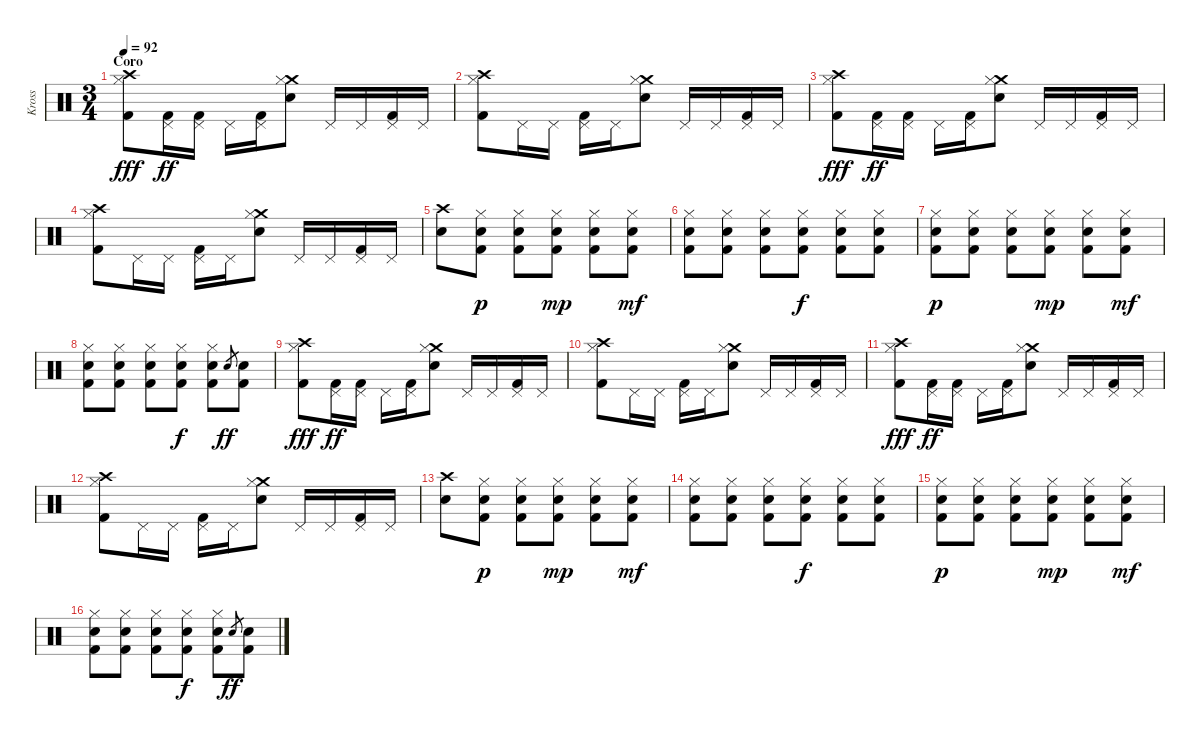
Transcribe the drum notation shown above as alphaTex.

\track ("Kross" "Kross") {instrument percussion}
\staff {score}
\articulation defaults
\ts (3 4)
\section ("" "Coro")
\tempo 92
\clef neutral
\ks c
("Crash high (hit)" "Hi-Hat (closed)" "Kick (hit) 2").8{dy fff} ("Pedal Hi-Hat (hit)" "Kick (hit) 2").16{dy ff} ("Pedal Hi-Hat (hit)" "Kick (hit) 2").16 "Pedal Hi-Hat (hit)".16 ("Pedal Hi-Hat (hit)" "Kick (hit) 2").16 ("Crash medium (hit)" "Hi-Hat (closed)" "Snare (hit) 2").8 "Pedal Hi-Hat (hit)".16 "Pedal Hi-Hat (hit)".16 ("Pedal Hi-Hat (hit)" "Kick (hit) 2").16 "Pedal Hi-Hat (hit)".16 |
("Crash high (hit)" "Hi-Hat (closed)" "Kick (hit) 2").8 "Pedal Hi-Hat (hit)".16 "Pedal Hi-Hat (hit)".16 ("Pedal Hi-Hat (hit)" "Kick (hit) 2").16 "Pedal Hi-Hat (hit)".16 ("Crash medium (hit)" "Hi-Hat (closed)" "Snare (hit) 2").8 "Pedal Hi-Hat (hit)".16 "Pedal Hi-Hat (hit)".16 ("Pedal Hi-Hat (hit)" "Kick (hit) 2").16 "Pedal Hi-Hat (hit)".16 |
("Crash high (hit)" "Hi-Hat (closed)" "Kick (hit) 2").8{dy fff} ("Pedal Hi-Hat (hit)" "Kick (hit) 2").16{dy ff} ("Pedal Hi-Hat (hit)" "Kick (hit) 2").16 "Pedal Hi-Hat (hit)".16 ("Pedal Hi-Hat (hit)" "Kick (hit) 2").16 ("Crash medium (hit)" "Hi-Hat (closed)" "Snare (hit) 2").8 "Pedal Hi-Hat (hit)".16 "Pedal Hi-Hat (hit)".16 ("Pedal Hi-Hat (hit)" "Kick (hit) 2").16 "Pedal Hi-Hat (hit)".16 |
("Crash high (hit)" "Hi-Hat (closed)" "Kick (hit) 2").8 "Pedal Hi-Hat (hit)".16 "Pedal Hi-Hat (hit)".16 ("Pedal Hi-Hat (hit)" "Kick (hit) 2").16 "Pedal Hi-Hat (hit)".16 ("Crash medium (hit)" "Hi-Hat (closed)" "Snare (hit) 2").8 "Pedal Hi-Hat (hit)".16 "Pedal Hi-Hat (hit)".16 ("Pedal Hi-Hat (hit)" "Kick (hit) 2").16 "Pedal Hi-Hat (hit)".16 |
("Crash high (hit)" "Snare (hit) 2").8 ("Hi-Hat (closed)" "Electric Snare (hit)" "Kick (hit) 2").8{dy p} ("Hi-Hat (closed)" "Electric Snare (hit)" "Kick (hit) 2").8 ("Hi-Hat (closed)" "Electric Snare (hit)" "Kick (hit) 2").8{dy mp} ("Hi-Hat (closed)" "Electric Snare (hit)" "Kick (hit) 2").8 ("Hi-Hat (closed)" "Electric Snare (hit)" "Kick (hit) 2").8{dy mf} |
("Hi-Hat (closed)" "Electric Snare (hit)" "Kick (hit) 2").8 ("Hi-Hat (closed)" "Electric Snare (hit)" "Kick (hit) 2").8 ("Hi-Hat (closed)" "Electric Snare (hit)" "Kick (hit) 2").8 ("Hi-Hat (closed)" "Electric Snare (hit)" "Kick (hit) 2").8{dy f} ("Hi-Hat (closed)" "Electric Snare (hit)" "Kick (hit) 2").8 ("Hi-Hat (closed)" "Electric Snare (hit)" "Kick (hit) 2").8 |
("Hi-Hat (closed)" "Electric Snare (hit)" "Kick (hit) 2").8{dy p} ("Hi-Hat (closed)" "Electric Snare (hit)" "Kick (hit) 2").8 ("Hi-Hat (closed)" "Electric Snare (hit)" "Kick (hit) 2").8 ("Hi-Hat (closed)" "Electric Snare (hit)" "Kick (hit) 2").8{dy mp} ("Hi-Hat (closed)" "Electric Snare (hit)" "Kick (hit) 2").8 ("Hi-Hat (closed)" "Electric Snare (hit)" "Kick (hit) 2").8{dy mf} |
("Hi-Hat (closed)" "Electric Snare (hit)" "Kick (hit) 2").8 ("Hi-Hat (closed)" "Electric Snare (hit)" "Kick (hit) 2").8 ("Hi-Hat (closed)" "Electric Snare (hit)" "Kick (hit) 2").8 ("Hi-Hat (closed)" "Electric Snare (hit)" "Kick (hit) 2").8{dy f} ("Hi-Hat (closed)" "Electric Snare (hit)" "Kick (hit) 2").8 "Electric Snare (hit)".8{gr dy ff} ("Electric Snare (hit)" "Kick (hit) 2").8 |
("Crash high (hit)" "Hi-Hat (closed)" "Kick (hit) 2").8{dy fff} ("Pedal Hi-Hat (hit)" "Kick (hit) 2").16{dy ff} ("Pedal Hi-Hat (hit)" "Kick (hit) 2").16 "Pedal Hi-Hat (hit)".16 ("Pedal Hi-Hat (hit)" "Kick (hit) 2").16 ("Crash medium (hit)" "Hi-Hat (closed)" "Snare (hit) 2").8 "Pedal Hi-Hat (hit)".16 "Pedal Hi-Hat (hit)".16 ("Pedal Hi-Hat (hit)" "Kick (hit) 2").16 "Pedal Hi-Hat (hit)".16 |
("Crash high (hit)" "Hi-Hat (closed)" "Kick (hit) 2").8 "Pedal Hi-Hat (hit)".16 "Pedal Hi-Hat (hit)".16 ("Pedal Hi-Hat (hit)" "Kick (hit) 2").16 "Pedal Hi-Hat (hit)".16 ("Crash medium (hit)" "Hi-Hat (closed)" "Snare (hit) 2").8 "Pedal Hi-Hat (hit)".16 "Pedal Hi-Hat (hit)".16 ("Pedal Hi-Hat (hit)" "Kick (hit) 2").16 "Pedal Hi-Hat (hit)".16 |
("Crash high (hit)" "Hi-Hat (closed)" "Kick (hit) 2").8{dy fff} ("Pedal Hi-Hat (hit)" "Kick (hit) 2").16{dy ff} ("Pedal Hi-Hat (hit)" "Kick (hit) 2").16 "Pedal Hi-Hat (hit)".16 ("Pedal Hi-Hat (hit)" "Kick (hit) 2").16 ("Crash medium (hit)" "Hi-Hat (closed)" "Snare (hit) 2").8 "Pedal Hi-Hat (hit)".16 "Pedal Hi-Hat (hit)".16 ("Pedal Hi-Hat (hit)" "Kick (hit) 2").16 "Pedal Hi-Hat (hit)".16 |
("Crash high (hit)" "Hi-Hat (closed)" "Kick (hit) 2").8 "Pedal Hi-Hat (hit)".16 "Pedal Hi-Hat (hit)".16 ("Pedal Hi-Hat (hit)" "Kick (hit) 2").16 "Pedal Hi-Hat (hit)".16 ("Crash medium (hit)" "Hi-Hat (closed)" "Snare (hit) 2").8 "Pedal Hi-Hat (hit)".16 "Pedal Hi-Hat (hit)".16 ("Pedal Hi-Hat (hit)" "Kick (hit) 2").16 "Pedal Hi-Hat (hit)".16 |
("Crash high (hit)" "Snare (hit) 2").8 ("Hi-Hat (closed)" "Electric Snare (hit)" "Kick (hit) 2").8{dy p} ("Hi-Hat (closed)" "Electric Snare (hit)" "Kick (hit) 2").8 ("Hi-Hat (closed)" "Electric Snare (hit)" "Kick (hit) 2").8{dy mp} ("Hi-Hat (closed)" "Electric Snare (hit)" "Kick (hit) 2").8 ("Hi-Hat (closed)" "Electric Snare (hit)" "Kick (hit) 2").8{dy mf} |
("Hi-Hat (closed)" "Electric Snare (hit)" "Kick (hit) 2").8 ("Hi-Hat (closed)" "Electric Snare (hit)" "Kick (hit) 2").8 ("Hi-Hat (closed)" "Electric Snare (hit)" "Kick (hit) 2").8 ("Hi-Hat (closed)" "Electric Snare (hit)" "Kick (hit) 2").8{dy f} ("Hi-Hat (closed)" "Electric Snare (hit)" "Kick (hit) 2").8 ("Hi-Hat (closed)" "Electric Snare (hit)" "Kick (hit) 2").8 |
("Hi-Hat (closed)" "Electric Snare (hit)" "Kick (hit) 2").8{dy p} ("Hi-Hat (closed)" "Electric Snare (hit)" "Kick (hit) 2").8 ("Hi-Hat (closed)" "Electric Snare (hit)" "Kick (hit) 2").8 ("Hi-Hat (closed)" "Electric Snare (hit)" "Kick (hit) 2").8{dy mp} ("Hi-Hat (closed)" "Electric Snare (hit)" "Kick (hit) 2").8 ("Hi-Hat (closed)" "Electric Snare (hit)" "Kick (hit) 2").8{dy mf} |
("Hi-Hat (closed)" "Electric Snare (hit)" "Kick (hit) 2").8 ("Hi-Hat (closed)" "Electric Snare (hit)" "Kick (hit) 2").8 ("Hi-Hat (closed)" "Electric Snare (hit)" "Kick (hit) 2").8 ("Hi-Hat (closed)" "Electric Snare (hit)" "Kick (hit) 2").8{dy f} ("Hi-Hat (closed)" "Electric Snare (hit)" "Kick (hit) 2").8 "Electric Snare (hit)".8{gr dy ff} ("Electric Snare (hit)" "Kick (hit) 2").8
